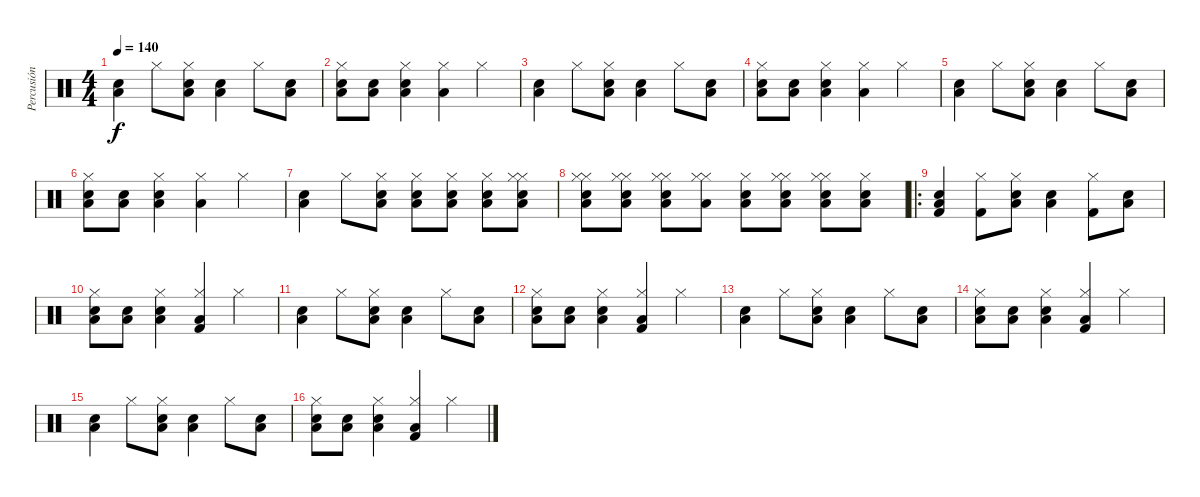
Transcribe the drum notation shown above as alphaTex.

\track ("Percusión" "Percusión") {instrument percussion}
\staff {score}
\articulation defaults
\ts (4 4)
\tempo 140
\clef neutral
\ks c
("Low Tom (hit)" "Snare (hit) 2").4{dy f} "Hi-Hat (closed)".8 ("Hi-Hat (closed)" "Snare (hit) 2" "Low Tom (hit)").8 ("Low Tom (hit)" "Snare (hit) 2").4 "Hi-Hat (closed)".8 ("Snare (hit) 2" "Low Tom (hit)").8 |
("Hi-Hat (closed)" "Snare (hit) 2" "Low Tom (hit)").8 ("Snare (hit) 2" "Low Tom (hit)").8 ("Snare (hit) 2" "Low Tom (hit)" "Hi-Hat (closed)").4 ("Low Tom (hit)" "Hi-Hat (closed)").4 "Hi-Hat (closed)".4 |
("Low Tom (hit)" "Snare (hit) 2").4 "Hi-Hat (closed)".8 ("Hi-Hat (closed)" "Snare (hit) 2" "Low Tom (hit)").8 ("Low Tom (hit)" "Snare (hit) 2").4 "Hi-Hat (closed)".8 ("Snare (hit) 2" "Low Tom (hit)").8 |
("Hi-Hat (closed)" "Snare (hit) 2" "Low Tom (hit)").8 ("Snare (hit) 2" "Low Tom (hit)").8 ("Snare (hit) 2" "Low Tom (hit)" "Hi-Hat (closed)").4 ("Low Tom (hit)" "Hi-Hat (closed)").4 "Hi-Hat (closed)".4 |
("Low Tom (hit)" "Snare (hit) 2").4 "Hi-Hat (closed)".8 ("Hi-Hat (closed)" "Snare (hit) 2" "Low Tom (hit)").8 ("Low Tom (hit)" "Snare (hit) 2").4 "Hi-Hat (closed)".8 ("Snare (hit) 2" "Low Tom (hit)").8 |
("Hi-Hat (closed)" "Snare (hit) 2" "Low Tom (hit)").8 ("Snare (hit) 2" "Low Tom (hit)").8 ("Snare (hit) 2" "Low Tom (hit)" "Hi-Hat (closed)").4 ("Low Tom (hit)" "Hi-Hat (closed)").4 "Hi-Hat (closed)".4 |
("Low Tom (hit)" "Snare (hit) 2").4 "Hi-Hat (closed)".8 ("Hi-Hat (closed)" "Snare (hit) 2" "Low Tom (hit)").8 ("Low Tom (hit)" "Hi-Hat (closed)" "Snare (hit) 2").8 ("Low Tom (hit)" "Hi-Hat (closed)" "Snare (hit) 2").8 ("Snare (hit) 2" "Low Tom (hit)" "Hi-Hat (closed)").8 ("Hi-Hat (closed)" "Snare (hit) 2" "Low Tom (hit)" "Hi-Hat (closed)").8 |
("Hi-Hat (closed)" "Hi-Hat (closed)" "Snare (hit) 2" "Low Tom (hit)").8 ("Hi-Hat (closed)" "Hi-Hat (closed)" "Snare (hit) 2" "Low Tom (hit)").8 ("Hi-Hat (closed)" "Snare (hit) 2" "Low Tom (hit)" "Hi-Hat (closed)").8 ("Hi-Hat (closed)" "Low Tom (hit)" "Hi-Hat (closed)").8 ("Hi-Hat (closed)" "Low Tom (hit)" "Snare (hit) 2").8 ("Low Tom (hit)" "Hi-Hat (closed)" "Hi-Hat (closed)" "Snare (hit) 2").8 ("Hi-Hat (closed)" "Hi-Hat (closed)" "Low Tom (hit)" "Snare (hit) 2").8 ("Hi-Hat (closed)" "Snare (hit) 2" "Low Tom (hit)").8 |
\ro
("Low Tom (hit)" "Kick (hit) 2" "Snare (hit) 2").4 ("Hi-Hat (closed)" "Kick (hit) 2").8 ("Hi-Hat (closed)" "Snare (hit) 2" "Low Tom (hit)").8 ("Low Tom (hit)" "Snare (hit) 2").4 ("Hi-Hat (closed)" "Kick (hit) 2").8 ("Snare (hit) 2" "Low Tom (hit)").8 |
("Hi-Hat (closed)" "Snare (hit) 2" "Low Tom (hit)").8 ("Snare (hit) 2" "Low Tom (hit)").8 ("Snare (hit) 2" "Low Tom (hit)" "Hi-Hat (closed)").4 ("Low Tom (hit)" "Kick (hit) 2" "Hi-Hat (closed)").4 "Hi-Hat (closed)".4 |
("Low Tom (hit)" "Snare (hit) 2").4 "Hi-Hat (closed)".8 ("Hi-Hat (closed)" "Snare (hit) 2" "Low Tom (hit)").8 ("Low Tom (hit)" "Snare (hit) 2").4 "Hi-Hat (closed)".8 ("Snare (hit) 2" "Low Tom (hit)").8 |
("Hi-Hat (closed)" "Snare (hit) 2" "Low Tom (hit)").8 ("Snare (hit) 2" "Low Tom (hit)").8 ("Snare (hit) 2" "Low Tom (hit)" "Hi-Hat (closed)").4 ("Low Tom (hit)" "Kick (hit) 2" "Hi-Hat (closed)").4 "Hi-Hat (closed)".4 |
("Low Tom (hit)" "Snare (hit) 2").4 "Hi-Hat (closed)".8 ("Hi-Hat (closed)" "Snare (hit) 2" "Low Tom (hit)").8 ("Low Tom (hit)" "Snare (hit) 2").4 "Hi-Hat (closed)".8 ("Snare (hit) 2" "Low Tom (hit)").8 |
("Hi-Hat (closed)" "Snare (hit) 2" "Low Tom (hit)").8 ("Snare (hit) 2" "Low Tom (hit)").8 ("Snare (hit) 2" "Low Tom (hit)" "Hi-Hat (closed)").4 ("Low Tom (hit)" "Kick (hit) 2" "Hi-Hat (closed)").4 "Hi-Hat (closed)".4 |
("Low Tom (hit)" "Snare (hit) 2").4 "Hi-Hat (closed)".8 ("Hi-Hat (closed)" "Snare (hit) 2" "Low Tom (hit)").8 ("Low Tom (hit)" "Snare (hit) 2").4 "Hi-Hat (closed)".8 ("Snare (hit) 2" "Low Tom (hit)").8 |
("Hi-Hat (closed)" "Snare (hit) 2" "Low Tom (hit)").8 ("Snare (hit) 2" "Low Tom (hit)").8 ("Snare (hit) 2" "Low Tom (hit)" "Hi-Hat (closed)").4 ("Low Tom (hit)" "Kick (hit) 2" "Hi-Hat (closed)").4 "Hi-Hat (closed)".4
